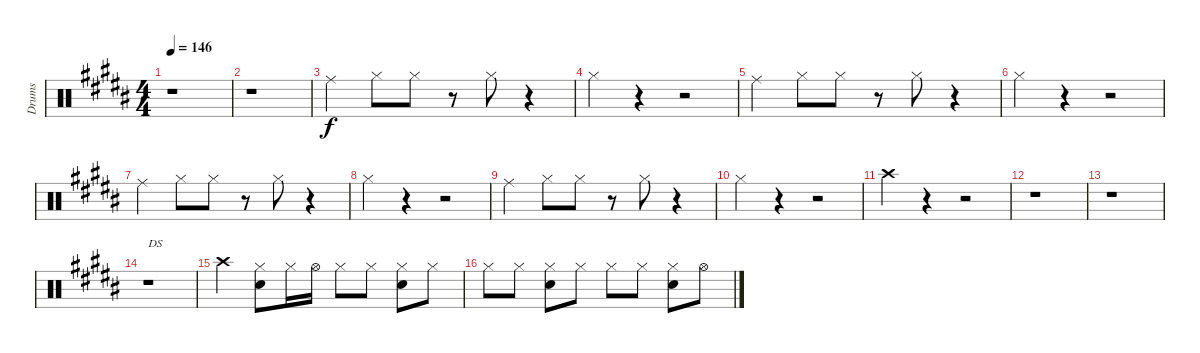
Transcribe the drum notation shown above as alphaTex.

\track ("Drums" "Drums") {instrument percussion}
\staff {score}
\articulation defaults
\ts (4 4)
\tempo 146
\clef neutral
\ks b
r.1{dy f} |
r.1 |
"Ride (middle)".4 "Hi-Hat (closed)".8 "Hi-Hat (closed)".8 r.8 "Hi-Hat (closed)".8 r.4 |
"Hi-Hat (closed)".4 r.4 r.2 |
"Ride (middle)".4 "Hi-Hat (closed)".8 "Hi-Hat (closed)".8 r.8 "Hi-Hat (closed)".8 r.4 |
"Hi-Hat (closed)".4 r.4 r.2 |
"Ride (middle)".4 "Hi-Hat (closed)".8 "Hi-Hat (closed)".8 r.8 "Hi-Hat (closed)".8 r.4 |
"Hi-Hat (closed)".4 r.4 r.2 |
"Ride (middle)".4 "Hi-Hat (closed)".8 "Hi-Hat (closed)".8 r.8 "Hi-Hat (closed)".8 r.4 |
"Hi-Hat (closed)".4 r.4 r.2 |
"Crash high (hit)".4 r.4 r.2 |
r.1 |
r.1 |
r.1{txt "DS"} |
"Crash high (hit)".4 ("Hi-Hat (closed)" "Snare (hit) 2").8 "Hi-Hat (closed)".16 "Hi-Hat (open)".16 "Hi-Hat (closed)".8 "Hi-Hat (closed)".8 ("Hi-Hat (closed)" "Snare (hit) 2").8 "Hi-Hat (closed)".8 |
"Hi-Hat (closed)".8 "Hi-Hat (closed)".8 ("Hi-Hat (closed)" "Snare (hit) 2").8 "Hi-Hat (closed)".8 "Hi-Hat (closed)".8 "Hi-Hat (closed)".8 ("Hi-Hat (closed)" "Snare (hit) 2").8 "Hi-Hat (open)".8
